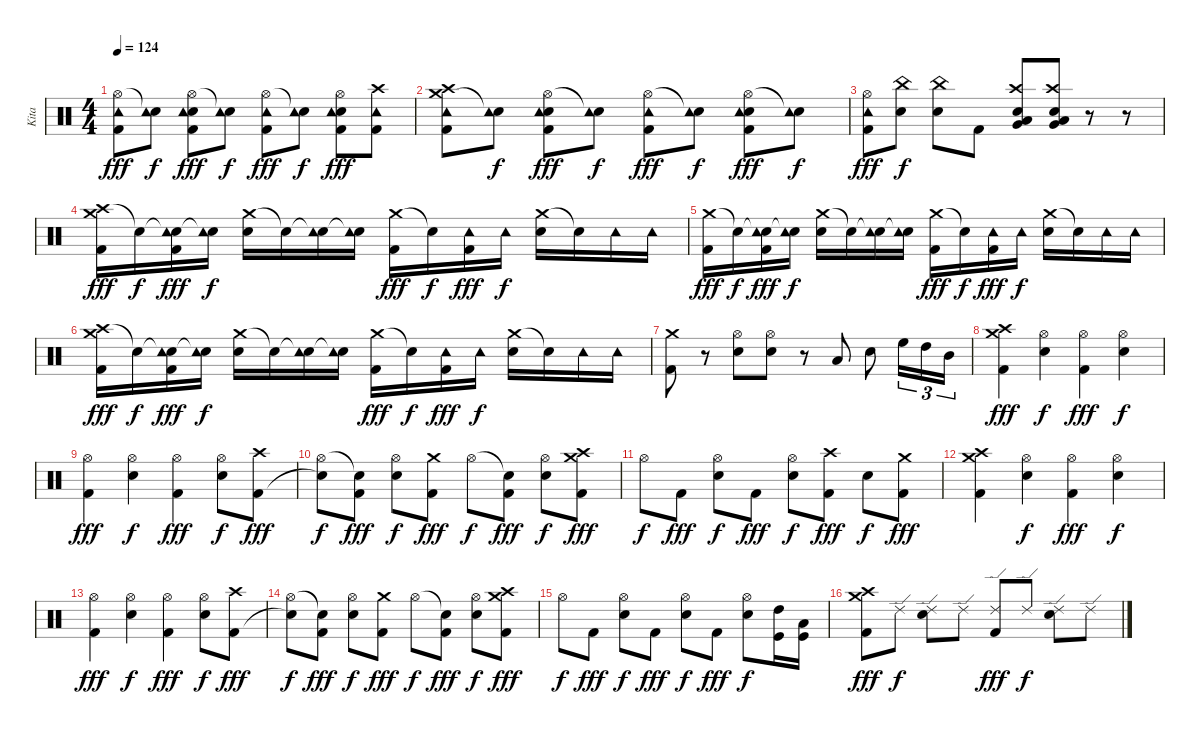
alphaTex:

\track ("Kita" "Kita") {instrument percussion}
\staff {score}
\articulation defaults
\ts (4 4)
\tempo 124
\clef neutral
\ks c
("Hi-Hat (open)" "Kick (hit) 2" "Tambourine (hit)").8{dy fff} ("Snare (hit)"{t} "Tambourine (hit)").8{dy f} ("Hi-Hat (open)" "Kick (hit) 2" "Electric Snare (hit)" "Tambourine (hit)").8{dy fff} ("Snare (hit)"{t} "Tambourine (hit)").8{dy f} ("Hi-Hat (open)" "Kick (hit) 2" "Tambourine (hit)").8{dy fff} ("Snare (hit)"{t} "Tambourine (hit)").8{dy f} ("Hi-Hat (open)" "Kick (hit) 2" "Electric Snare (hit)" "Tambourine (hit)").8{dy fff} ("Crash high (hit)" "Kick (hit) 2" "Tambourine (hit)").8 |
("Crash medium (hit)" "Kick (hit) 2" "Crash high (hit)" "Tambourine (hit)").8 ("Snare (hit)"{t} "Tambourine (hit)").8{dy f} ("Hi-Hat (open)" "Kick (hit) 2" "Electric Snare (hit)" "Tambourine (hit)").8{dy fff} ("Snare (hit)"{t} "Tambourine (hit)").8{dy f} ("Hi-Hat (open)" "Kick (hit) 2" "Tambourine (hit)").8{dy fff} ("Snare (hit)"{t} "Tambourine (hit)").8{dy f} ("Hi-Hat (open)" "Kick (hit) 2" "Electric Snare (hit)" "Tambourine (hit)").8{dy fff} ("Snare (hit)"{t} "Tambourine (hit)").8{dy f} |
("Hi-Hat (open)" "Kick (hit) 2" "Tambourine (hit)").8{dy fff} ("Electric Snare (hit)" "China (hit)").8{dy f} ("Electric Snare (hit)" "China (hit)").8 "Kick (hit) 2".8 ("Electric Snare (hit)" "Low Tom (hit)" "Very Low Tom (hit)" "Crash high (hit)").8 ("Electric Snare (hit)" "Low Tom (hit)" "Very Low Tom (hit)" "Crash high (hit)").8 r.8 r.8 |
("Crash high (hit)" "Kick (hit) 2" "Crash medium (hit)").16{dy fff} "Snare (hit)"{t}.16{dy f} ("Snare (hit)"{t} "Tambourine (hit)" "Kick (hit) 2").16{dy fff} ("Snare (hit)"{t} "Tambourine (hit)").16{dy f} ("Crash medium (hit)" "Electric Snare (hit)").16 "Snare (hit)"{t}.16 ("Snare (hit)"{t} "Tambourine (hit)").16 ("Snare (hit)"{t} "Tambourine (hit)").16 ("Crash medium (hit)" "Kick (hit) 2").16{dy fff} "Snare (hit)"{t}.16{dy f} ("Tambourine (hit)" "Kick (hit) 2").16{dy fff} "Tambourine (hit)".16{dy f} ("Crash medium (hit)" "Electric Snare (hit)").16 "Snare (hit)"{t}.16 "Tambourine (hit)".16 "Tambourine (hit)".16 |
("Crash medium (hit)" "Kick (hit) 2").16{dy fff} "Snare (hit)"{t}.16{dy f} ("Snare (hit)"{t} "Tambourine (hit)" "Kick (hit) 2").16{dy fff} ("Snare (hit)"{t} "Tambourine (hit)").16{dy f} ("Crash medium (hit)" "Electric Snare (hit)").16 "Snare (hit)"{t}.16 ("Snare (hit)"{t} "Tambourine (hit)").16 ("Snare (hit)"{t} "Tambourine (hit)").16 ("Crash medium (hit)" "Kick (hit) 2").16{dy fff} "Snare (hit)"{t}.16{dy f} ("Tambourine (hit)" "Kick (hit) 2").16{dy fff} "Tambourine (hit)".16{dy f} ("Crash medium (hit)" "Electric Snare (hit)").16 "Snare (hit)"{t}.16 "Tambourine (hit)".16 "Tambourine (hit)".16 |
("Crash high (hit)" "Kick (hit) 2" "Crash medium (hit)").16{dy fff} "Snare (hit)"{t}.16{dy f} ("Snare (hit)"{t} "Tambourine (hit)" "Kick (hit) 2").16{dy fff} ("Snare (hit)"{t} "Tambourine (hit)").16{dy f} ("Crash medium (hit)" "Electric Snare (hit)").16 "Snare (hit)"{t}.16 ("Snare (hit)"{t} "Tambourine (hit)").16 ("Snare (hit)"{t} "Tambourine (hit)").16 ("Crash medium (hit)" "Kick (hit) 2").16{dy fff} "Snare (hit)"{t}.16{dy f} ("Tambourine (hit)" "Kick (hit) 2").16{dy fff} "Tambourine (hit)".16{dy f} ("Crash medium (hit)" "Electric Snare (hit)").16 "Snare (hit)"{t}.16 "Tambourine (hit)".16 "Tambourine (hit)".16 |
("Crash medium (hit)" "Kick (hit) 2").8 r.8 ("Electric Snare (hit)" "Hi-Hat (open)").8 ("Electric Snare (hit)" "Hi-Hat (open)").8 r.8 "Low Tom (hit)".8 "Electric Snare (hit)".8 "High Floor Tom (hit)".16{tu (3 2)} "High Tom (hit)".16{tu (3 2)} "Mid Tom (hit)".16{tu (3 2)} |
("Crash high (hit)" "Kick (hit) 2" "Crash medium (hit)").4{dy fff} ("Hi-Hat (open)" "Electric Snare (hit)").4{dy f} ("Hi-Hat (open)" "Kick (hit) 2").4{dy fff} ("Hi-Hat (open)" "Electric Snare (hit)").4{dy f} |
("Hi-Hat (open)" "Kick (hit) 2").4{dy fff} ("Hi-Hat (open)" "Electric Snare (hit)").4{dy f} ("Hi-Hat (open)" "Kick (hit) 2").4{dy fff} ("Hi-Hat (open)" "Electric Snare (hit)").8{dy f} ("Crash high (hit)" "Kick (hit) 2").8{dy fff} |
("Hi-Hat (open)" "Snare (hit)"{t}).8{dy f} ("Snare (hit)"{t} "Kick (hit) 2").8{dy fff} ("Hi-Hat (open)" "Electric Snare (hit)").8{dy f} ("Crash medium (hit)" "Kick (hit) 2").8{dy fff} "Hi-Hat (open)".8{dy f} ("Snare (hit)"{t} "Kick (hit) 2").8{dy fff} ("Hi-Hat (open)" "Electric Snare (hit)").8{dy f} ("Crash high (hit)" "Kick (hit) 2" "Crash medium (hit)").8{dy fff} |
"Hi-Hat (open)".8{dy f} "Kick (hit) 2".8{dy fff} ("Hi-Hat (open)" "Electric Snare (hit)").8{dy f} "Kick (hit) 2".8{dy fff} ("Hi-Hat (open)" "Electric Snare (hit)").8{dy f} ("Crash high (hit)" "Kick (hit) 2").8{dy fff} "Electric Snare (hit)".8{dy f} ("Crash medium (hit)" "Kick (hit) 2").8{dy fff} |
("Crash high (hit)" "Kick (hit) 2" "Crash medium (hit)").4 ("Hi-Hat (open)" "Electric Snare (hit)").4{dy f} ("Hi-Hat (open)" "Kick (hit) 2").4{dy fff} ("Hi-Hat (open)" "Electric Snare (hit)").4{dy f} |
("Hi-Hat (open)" "Kick (hit) 2").4{dy fff} ("Hi-Hat (open)" "Electric Snare (hit)").4{dy f} ("Hi-Hat (open)" "Kick (hit) 2").4{dy fff} ("Hi-Hat (open)" "Electric Snare (hit)").8{dy f} ("Crash high (hit)" "Kick (hit) 2").8{dy fff} |
("Hi-Hat (open)" "Snare (hit)"{t}).8{dy f} ("Snare (hit)"{t} "Kick (hit) 2").8{dy fff} ("Hi-Hat (open)" "Electric Snare (hit)").8{dy f} ("Crash medium (hit)" "Kick (hit) 2").8{dy fff} "Hi-Hat (open)".8{dy f} ("Snare (hit)"{t} "Kick (hit) 2").8{dy fff} ("Hi-Hat (open)" "Electric Snare (hit)").8{dy f} ("Crash high (hit)" "Kick (hit) 2" "Crash medium (hit)").8{dy fff} |
"Hi-Hat (open)".8{dy f} "Kick (hit) 2".8{dy fff} ("Hi-Hat (open)" "Electric Snare (hit)").8{dy f} "Kick (hit) 2".8{dy fff} ("Hi-Hat (open)" "Electric Snare (hit)").8{dy f} "Kick (hit) 2".8{dy fff} ("Hi-Hat (open)" "Electric Snare (hit)").8{dy f} ("High Tom (hit)" "Kick (hit)").16 ("Low Tom (hit)" "Kick (hit)").16 |
("Crash high (hit)" "Kick (hit) 2" "Crash medium (hit)").8{dy fff} "Ride (edge) 2".8{dy f} ("Ride (edge) 2" "Electric Snare (hit)").8 "Ride (edge) 2".8 ("Ride (edge) 2" "Kick (hit) 2").8{dy fff} "Ride (edge) 2".8{dy f} ("Ride (edge) 2" "Electric Snare (hit)").8 "Ride (edge) 2".8
